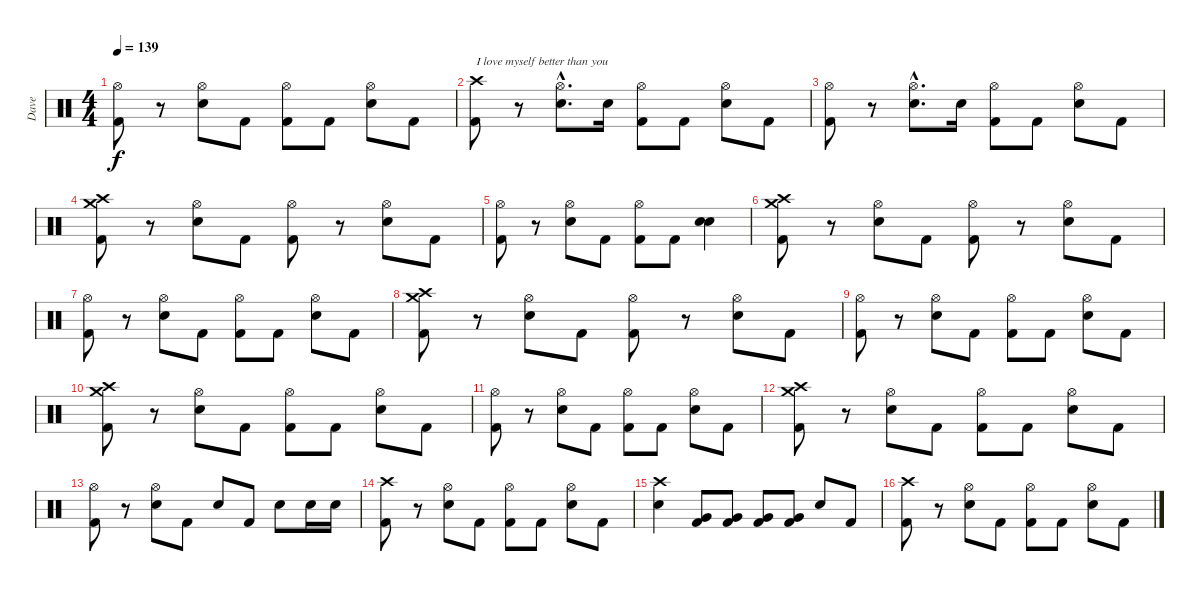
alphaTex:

\track ("Dave" "Dave") {instrument percussion}
\staff {score}
\articulation defaults
\ts (4 4)
\tempo 139
\clef neutral
\ks c
("Hi-Hat (open)" "Kick (hit) 2").8{dy f} r.8 ("Hi-Hat (open)" "Snare (hit) 2").8 "Kick (hit) 2".8 ("Hi-Hat (open)" "Kick (hit) 2").8 "Kick (hit) 2".8 ("Hi-Hat (open)" "Snare (hit) 2").8 "Kick (hit) 2".8 |
("Crash high (hit)" "Kick (hit) 2").8{txt "I love myself better than you"} r.8 ("Hi-Hat (open)"{hac} "Snare (hit) 2"{hac}).8{d} "Snare (hit) 2".16 ("Hi-Hat (open)" "Kick (hit) 2").8 "Kick (hit) 2".8 ("Hi-Hat (open)" "Snare (hit) 2").8 "Kick (hit) 2".8 |
("Hi-Hat (open)" "Kick (hit) 2").8 r.8 ("Hi-Hat (open)"{hac} "Snare (hit) 2"{hac}).8{d} "Snare (hit) 2".16 ("Hi-Hat (open)" "Kick (hit) 2").8 "Kick (hit) 2".8 ("Hi-Hat (open)" "Snare (hit) 2").8 "Kick (hit) 2".8 |
("Crash medium (hit)" "Crash high (hit)" "Kick (hit) 2").8 r.8 ("Hi-Hat (open)" "Snare (hit) 2").8 "Kick (hit) 2".8 ("Hi-Hat (open)" "Kick (hit) 2").8 r.8 ("Hi-Hat (open)" "Snare (hit) 2").8 "Kick (hit) 2".8 |
("Hi-Hat (open)" "Kick (hit) 2").8 r.8 ("Hi-Hat (open)" "Snare (hit) 2").8 "Kick (hit) 2".8 ("Hi-Hat (open)" "Kick (hit) 2").8 "Kick (hit) 2".8 ("Snare (hit) 2" "Snare (hit) 2").4 |
("Crash medium (hit)" "Crash high (hit)" "Kick (hit) 2").8 r.8 ("Hi-Hat (open)" "Snare (hit) 2").8 "Kick (hit) 2".8 ("Hi-Hat (open)" "Kick (hit) 2").8 r.8 ("Hi-Hat (open)" "Snare (hit) 2").8 "Kick (hit) 2".8 |
("Hi-Hat (open)" "Kick (hit) 2").8 r.8 ("Hi-Hat (open)" "Snare (hit) 2").8 "Kick (hit) 2".8 ("Hi-Hat (open)" "Kick (hit) 2").8 "Kick (hit) 2".8 ("Hi-Hat (open)" "Snare (hit) 2").8 "Kick (hit) 2".8 |
("Crash medium (hit)" "Crash high (hit)" "Kick (hit) 2").8 r.8 ("Hi-Hat (open)" "Snare (hit) 2").8 "Kick (hit) 2".8 ("Hi-Hat (open)" "Kick (hit) 2").8 r.8 ("Hi-Hat (open)" "Snare (hit) 2").8 "Kick (hit) 2".8 |
("Hi-Hat (open)" "Kick (hit) 2").8 r.8 ("Hi-Hat (open)" "Snare (hit) 2").8 "Kick (hit) 2".8 ("Hi-Hat (open)" "Kick (hit) 2").8 "Kick (hit) 2".8 ("Hi-Hat (open)" "Snare (hit) 2").8 "Kick (hit) 2".8 |
("Crash medium (hit)" "Crash high (hit)" "Kick (hit) 2").8 r.8 ("Hi-Hat (open)" "Snare (hit) 2").8 "Kick (hit) 2".8 ("Hi-Hat (open)" "Kick (hit) 2").8 "Kick (hit) 2".8 ("Hi-Hat (open)" "Snare (hit) 2").8 "Kick (hit) 2".8 |
("Hi-Hat (open)" "Kick (hit) 2").8 r.8 ("Hi-Hat (open)" "Snare (hit) 2").8 "Kick (hit) 2".8 ("Hi-Hat (open)" "Kick (hit) 2").8 "Kick (hit) 2".8 ("Hi-Hat (open)" "Snare (hit) 2").8 "Kick (hit) 2".8 |
("Crash medium (hit)" "Crash high (hit)" "Kick (hit) 2").8 r.8 ("Hi-Hat (open)" "Snare (hit) 2").8 "Kick (hit) 2".8 ("Hi-Hat (open)" "Kick (hit) 2").8 "Kick (hit) 2".8 ("Hi-Hat (open)" "Snare (hit) 2").8 "Kick (hit) 2".8 |
("Hi-Hat (open)" "Kick (hit) 2").8 r.8 ("Hi-Hat (open)" "Snare (hit) 2").8 "Kick (hit) 2".8 "Snare (hit) 2".8 "Kick (hit) 2".8 "Snare (hit) 2".8 "Snare (hit) 2".16 "Snare (hit) 2".16 |
("Crash high (hit)" "Kick (hit) 2").8 r.8 ("Hi-Hat (open)" "Snare (hit) 2").8 "Kick (hit) 2".8 ("Hi-Hat (open)" "Kick (hit) 2").8 "Kick (hit) 2".8 ("Hi-Hat (open)" "Snare (hit) 2").8 "Kick (hit) 2".8 |
("Crash high (hit)" "Snare (hit) 2").4 ("Very Low Tom (hit)" "Kick (hit) 2").8 ("Very Low Tom (hit)" "Kick (hit) 2").8 ("Very Low Tom (hit)" "Kick (hit) 2").8 ("Very Low Tom (hit)" "Kick (hit) 2").8 "Snare (hit) 2".8 "Kick (hit) 2".8 |
("Crash high (hit)" "Kick (hit) 2").8 r.8 ("Hi-Hat (open)" "Snare (hit) 2").8 "Kick (hit) 2".8 ("Hi-Hat (open)" "Kick (hit) 2").8 "Kick (hit) 2".8 ("Hi-Hat (open)" "Snare (hit) 2").8 "Kick (hit) 2".8
